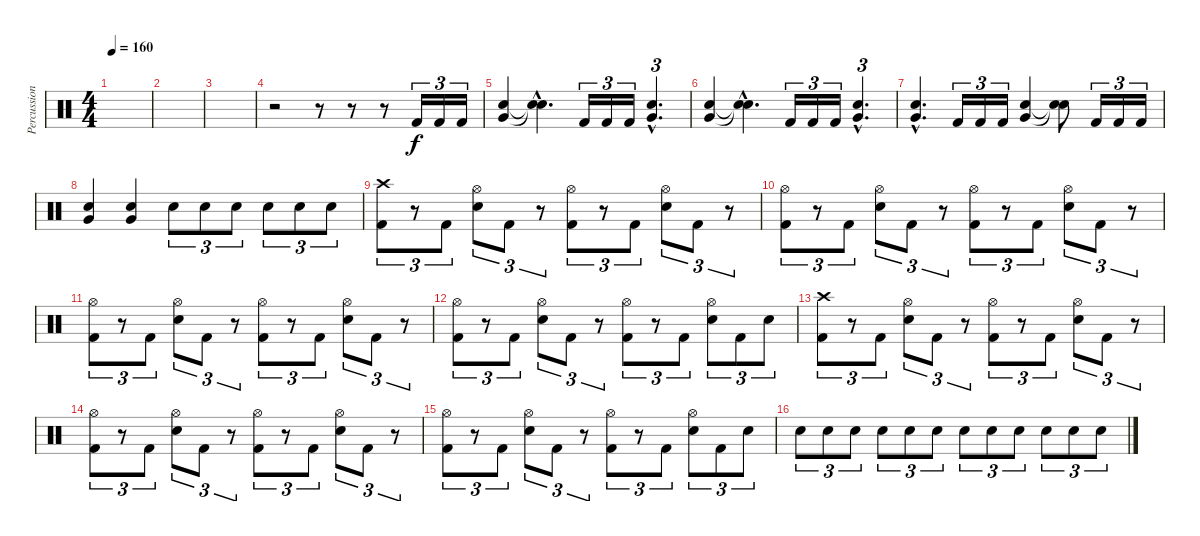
\track ("Percussion" "Percussion") {instrument percussion}
\staff {score}
\articulation defaults
\ts (4 4)
\tempo 160
\clef neutral
\ks c
|
|
|
r.2 r.8 r.8 r.8 "Kick (hit) 2".16{tu (3 2)} "Kick (hit) 2".16{tu (3 2)} "Kick (hit) 2".16{tu (3 2)} |
("Very Low Tom (hit)" "Electric Snare (hit)").4 ("Snare (hit)"{hac t} "Snare (hit)"{hac t}).4{d} "Kick (hit) 2".16{tu (3 2)} "Kick (hit) 2".16{tu (3 2)} "Kick (hit) 2".16{tu (3 2)} ("Very Low Tom (hit)"{hac} "Electric Snare (hit)"{hac}).4{d tu (3 2)} |
("Very Low Tom (hit)" "Electric Snare (hit)").4 ("Snare (hit)"{hac t} "Snare (hit)"{hac t}).4{d} "Kick (hit) 2".16{tu (3 2)} "Kick (hit) 2".16{tu (3 2)} "Kick (hit) 2".16{tu (3 2)} ("Very Low Tom (hit)"{hac} "Electric Snare (hit)"{hac}).4{d tu (3 2)} |
("Very Low Tom (hit)"{hac} "Electric Snare (hit)"{hac}).4{d} "Kick (hit) 2".16{tu (3 2)} "Kick (hit) 2".16{tu (3 2)} "Kick (hit) 2".16{tu (3 2)} ("Very Low Tom (hit)" "Electric Snare (hit)").4 ("Snare (hit)"{t} "Snare (hit)"{t}).8 "Kick (hit) 2".16{tu (3 2)} "Kick (hit) 2".16{tu (3 2)} "Kick (hit) 2".16{tu (3 2)} |
("Very Low Tom (hit)" "Electric Snare (hit)").4 ("Very Low Tom (hit)" "Electric Snare (hit)").4 "Electric Snare (hit)".8{tu (3 2)} "Electric Snare (hit)".8{tu (3 2)} "Electric Snare (hit)".8{tu (3 2)} "Electric Snare (hit)".8{tu (3 2)} "Electric Snare (hit)".8{tu (3 2)} "Electric Snare (hit)".8{tu (3 2)} |
("Crash high (hit)" "Kick (hit) 2").8{tu (3 2)} r.8{tu (3 2)} "Kick (hit) 2".8{tu (3 2)} ("Hi-Hat (open)" "Electric Snare (hit)").8{tu (3 2)} "Kick (hit) 2".8{tu (3 2)} r.8{tu (3 2)} ("Hi-Hat (open)" "Kick (hit) 2").8{tu (3 2)} r.8{tu (3 2)} "Kick (hit) 2".8{tu (3 2)} ("Hi-Hat (open)" "Electric Snare (hit)").8{tu (3 2)} "Kick (hit) 2".8{tu (3 2)} r.8{tu (3 2)} |
("Hi-Hat (open)" "Kick (hit) 2").8{tu (3 2)} r.8{tu (3 2)} "Kick (hit) 2".8{tu (3 2)} ("Hi-Hat (open)" "Electric Snare (hit)").8{tu (3 2)} "Kick (hit) 2".8{tu (3 2)} r.8{tu (3 2)} ("Hi-Hat (open)" "Kick (hit) 2").8{tu (3 2)} r.8{tu (3 2)} "Kick (hit) 2".8{tu (3 2)} ("Hi-Hat (open)" "Electric Snare (hit)").8{tu (3 2)} "Kick (hit) 2".8{tu (3 2)} r.8{tu (3 2)} |
("Hi-Hat (open)" "Kick (hit) 2").8{tu (3 2)} r.8{tu (3 2)} "Kick (hit) 2".8{tu (3 2)} ("Hi-Hat (open)" "Electric Snare (hit)").8{tu (3 2)} "Kick (hit) 2".8{tu (3 2)} r.8{tu (3 2)} ("Hi-Hat (open)" "Kick (hit) 2").8{tu (3 2)} r.8{tu (3 2)} "Kick (hit) 2".8{tu (3 2)} ("Hi-Hat (open)" "Electric Snare (hit)").8{tu (3 2)} "Kick (hit) 2".8{tu (3 2)} r.8{tu (3 2)} |
("Hi-Hat (open)" "Kick (hit) 2").8{tu (3 2)} r.8{tu (3 2)} "Kick (hit) 2".8{tu (3 2)} ("Hi-Hat (open)" "Electric Snare (hit)").8{tu (3 2)} "Kick (hit) 2".8{tu (3 2)} r.8{tu (3 2)} ("Hi-Hat (open)" "Kick (hit) 2").8{tu (3 2)} r.8{tu (3 2)} "Kick (hit) 2".8{tu (3 2)} ("Hi-Hat (open)" "Electric Snare (hit)").8{tu (3 2)} "Kick (hit) 2".8{tu (3 2)} "Electric Snare (hit)".8{tu (3 2)} |
("Crash high (hit)" "Kick (hit) 2").8{tu (3 2)} r.8{tu (3 2)} "Kick (hit) 2".8{tu (3 2)} ("Hi-Hat (open)" "Electric Snare (hit)").8{tu (3 2)} "Kick (hit) 2".8{tu (3 2)} r.8{tu (3 2)} ("Hi-Hat (open)" "Kick (hit) 2").8{tu (3 2)} r.8{tu (3 2)} "Kick (hit) 2".8{tu (3 2)} ("Hi-Hat (open)" "Electric Snare (hit)").8{tu (3 2)} "Kick (hit) 2".8{tu (3 2)} r.8{tu (3 2)} |
("Hi-Hat (open)" "Kick (hit) 2").8{tu (3 2)} r.8{tu (3 2)} "Kick (hit) 2".8{tu (3 2)} ("Hi-Hat (open)" "Electric Snare (hit)").8{tu (3 2)} "Kick (hit) 2".8{tu (3 2)} r.8{tu (3 2)} ("Hi-Hat (open)" "Kick (hit) 2").8{tu (3 2)} r.8{tu (3 2)} "Kick (hit) 2".8{tu (3 2)} ("Hi-Hat (open)" "Electric Snare (hit)").8{tu (3 2)} "Kick (hit) 2".8{tu (3 2)} r.8{tu (3 2)} |
("Hi-Hat (open)" "Kick (hit) 2").8{tu (3 2)} r.8{tu (3 2)} "Kick (hit) 2".8{tu (3 2)} ("Hi-Hat (open)" "Electric Snare (hit)").8{tu (3 2)} "Kick (hit) 2".8{tu (3 2)} r.8{tu (3 2)} ("Hi-Hat (open)" "Kick (hit) 2").8{tu (3 2)} r.8{tu (3 2)} "Kick (hit) 2".8{tu (3 2)} ("Hi-Hat (open)" "Electric Snare (hit)").8{tu (3 2)} "Kick (hit) 2".8{tu (3 2)} "Electric Snare (hit)".8{tu (3 2)} |
"Electric Snare (hit)".8{tu (3 2)} "Electric Snare (hit)".8{tu (3 2)} "Electric Snare (hit)".8{tu (3 2)} "Electric Snare (hit)".8{tu (3 2)} "Electric Snare (hit)".8{tu (3 2)} "Electric Snare (hit)".8{tu (3 2)} "Electric Snare (hit)".8{tu (3 2)} "Electric Snare (hit)".8{tu (3 2)} "Electric Snare (hit)".8{tu (3 2)} "Electric Snare (hit)".8{tu (3 2)} "Electric Snare (hit)".8{tu (3 2)} "Electric Snare (hit)".8{tu (3 2)}
